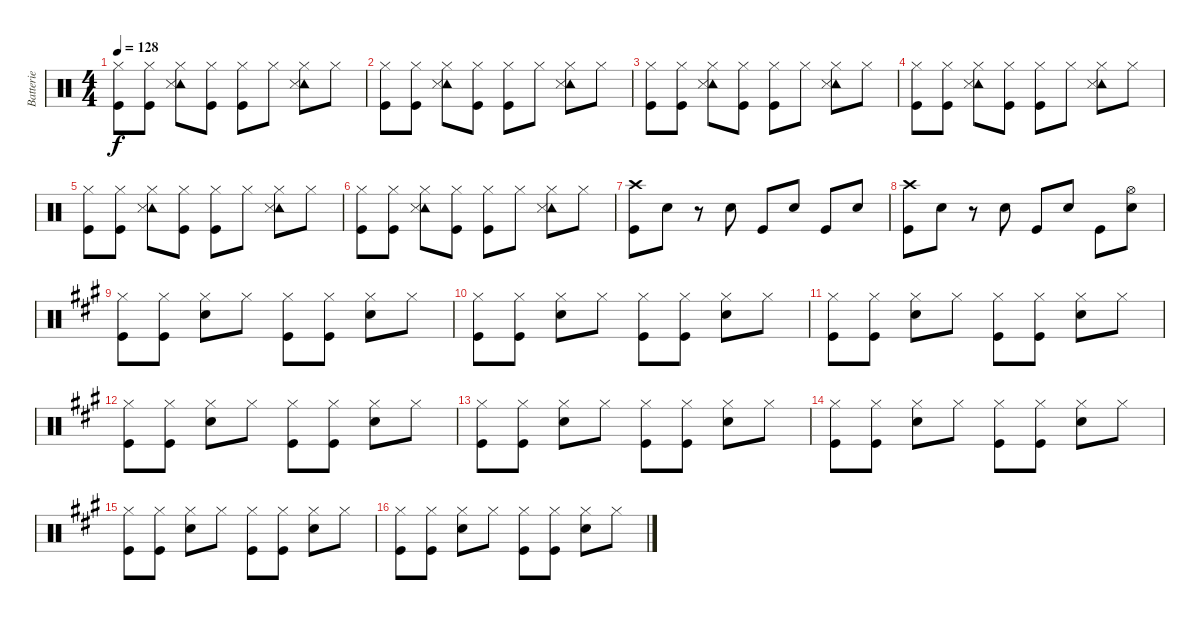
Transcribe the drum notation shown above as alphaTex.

\track ("Batterie" "Batterie") {instrument percussion}
\staff {score}
\articulation defaults
\ts (4 4)
\tempo 128
\clef neutral
\ks c
("Hi-Hat (closed)" "Kick (hit)").8{dy f} ("Hi-Hat (closed)" "Kick (hit)").8 ("Hi-Hat (closed)" "Tambourine (hit)" "Snare (side stick) 3").8 ("Hi-Hat (closed)" "Kick (hit)").8 ("Hi-Hat (closed)" "Kick (hit)").8 "Hi-Hat (closed)".8 ("Hi-Hat (closed)" "Tambourine (hit)" "Snare (side stick) 3").8 "Hi-Hat (closed)".8 |
("Hi-Hat (closed)" "Kick (hit)").8 ("Hi-Hat (closed)" "Kick (hit)").8 ("Hi-Hat (closed)" "Tambourine (hit)" "Snare (side stick) 3").8 ("Hi-Hat (closed)" "Kick (hit)").8 ("Hi-Hat (closed)" "Kick (hit)").8 "Hi-Hat (closed)".8 ("Hi-Hat (closed)" "Tambourine (hit)" "Snare (side stick) 3").8 "Hi-Hat (closed)".8 |
("Hi-Hat (closed)" "Kick (hit)").8 ("Hi-Hat (closed)" "Kick (hit)").8 ("Hi-Hat (closed)" "Tambourine (hit)" "Snare (side stick) 3").8 ("Hi-Hat (closed)" "Kick (hit)").8 ("Hi-Hat (closed)" "Kick (hit)").8 "Hi-Hat (closed)".8 ("Hi-Hat (closed)" "Tambourine (hit)" "Snare (side stick) 3").8 "Hi-Hat (closed)".8 |
("Hi-Hat (closed)" "Kick (hit)").8 ("Hi-Hat (closed)" "Kick (hit)").8 ("Hi-Hat (closed)" "Tambourine (hit)" "Snare (side stick) 3").8 ("Hi-Hat (closed)" "Kick (hit)").8 ("Hi-Hat (closed)" "Kick (hit)").8 "Hi-Hat (closed)".8 ("Hi-Hat (closed)" "Tambourine (hit)" "Snare (side stick) 3").8 "Hi-Hat (closed)".8 |
("Hi-Hat (closed)" "Kick (hit)").8 ("Hi-Hat (closed)" "Kick (hit)").8 ("Hi-Hat (closed)" "Tambourine (hit)" "Snare (side stick) 3").8 ("Hi-Hat (closed)" "Kick (hit)").8 ("Hi-Hat (closed)" "Kick (hit)").8 "Hi-Hat (closed)".8 ("Hi-Hat (closed)" "Tambourine (hit)" "Snare (side stick) 3").8 "Hi-Hat (closed)".8 |
("Hi-Hat (closed)" "Kick (hit)").8 ("Hi-Hat (closed)" "Kick (hit)").8 ("Hi-Hat (closed)" "Tambourine (hit)" "Snare (side stick) 3").8 ("Hi-Hat (closed)" "Kick (hit)").8 ("Hi-Hat (closed)" "Kick (hit)").8 "Hi-Hat (closed)".8 ("Hi-Hat (closed)" "Tambourine (hit)" "Snare (side stick) 3").8 "Hi-Hat (closed)".8 |
("Crash high (hit)" "Kick (hit)").8 "Snare (hit) 2".8 r.8 "Snare (hit) 2".8 "Kick (hit)".8 "Snare (hit) 2".8 "Kick (hit)".8 "Snare (hit) 2".8 |
("Crash high (hit)" "Kick (hit)").8 "Snare (hit) 2".8 r.8 "Snare (hit) 2".8 "Kick (hit)".8 "Snare (hit) 2".8 "Kick (hit)".8 ("Hi-Hat (open)" "Snare (hit) 2").8 |
\ks a
("Hi-Hat (closed)" "Kick (hit)").8 ("Hi-Hat (closed)" "Kick (hit)").8 ("Hi-Hat (closed)" "Snare (hit) 2").8 "Hi-Hat (closed)".8 ("Hi-Hat (closed)" "Kick (hit)").8 ("Hi-Hat (closed)" "Kick (hit)").8 ("Hi-Hat (closed)" "Snare (hit) 2").8 "Hi-Hat (closed)".8 |
("Hi-Hat (closed)" "Kick (hit)").8 ("Hi-Hat (closed)" "Kick (hit)").8 ("Hi-Hat (closed)" "Snare (hit) 2").8 "Hi-Hat (closed)".8 ("Hi-Hat (closed)" "Kick (hit)").8 ("Hi-Hat (closed)" "Kick (hit)").8 ("Hi-Hat (closed)" "Snare (hit) 2").8 "Hi-Hat (closed)".8 |
("Hi-Hat (closed)" "Kick (hit)").8 ("Hi-Hat (closed)" "Kick (hit)").8 ("Hi-Hat (closed)" "Snare (hit) 2").8 "Hi-Hat (closed)".8 ("Hi-Hat (closed)" "Kick (hit)").8 ("Hi-Hat (closed)" "Kick (hit)").8 ("Hi-Hat (closed)" "Snare (hit) 2").8 "Hi-Hat (closed)".8 |
("Hi-Hat (closed)" "Kick (hit)").8 ("Hi-Hat (closed)" "Kick (hit)").8 ("Hi-Hat (closed)" "Snare (hit) 2").8 "Hi-Hat (closed)".8 ("Hi-Hat (closed)" "Kick (hit)").8 ("Hi-Hat (closed)" "Kick (hit)").8 ("Hi-Hat (closed)" "Snare (hit) 2").8 "Hi-Hat (closed)".8 |
("Hi-Hat (closed)" "Kick (hit)").8 ("Hi-Hat (closed)" "Kick (hit)").8 ("Hi-Hat (closed)" "Snare (hit) 2").8 "Hi-Hat (closed)".8 ("Hi-Hat (closed)" "Kick (hit)").8 ("Hi-Hat (closed)" "Kick (hit)").8 ("Hi-Hat (closed)" "Snare (hit) 2").8 "Hi-Hat (closed)".8 |
("Hi-Hat (closed)" "Kick (hit)").8 ("Hi-Hat (closed)" "Kick (hit)").8 ("Hi-Hat (closed)" "Snare (hit) 2").8 "Hi-Hat (closed)".8 ("Hi-Hat (closed)" "Kick (hit)").8 ("Hi-Hat (closed)" "Kick (hit)").8 ("Hi-Hat (closed)" "Snare (hit) 2").8 "Hi-Hat (closed)".8 |
("Hi-Hat (closed)" "Kick (hit)").8 ("Hi-Hat (closed)" "Kick (hit)").8 ("Hi-Hat (closed)" "Snare (hit) 2").8 "Hi-Hat (closed)".8 ("Hi-Hat (closed)" "Kick (hit)").8 ("Hi-Hat (closed)" "Kick (hit)").8 ("Hi-Hat (closed)" "Snare (hit) 2").8 "Hi-Hat (closed)".8 |
("Hi-Hat (closed)" "Kick (hit)").8 ("Hi-Hat (closed)" "Kick (hit)").8 ("Hi-Hat (closed)" "Snare (hit) 2").8 "Hi-Hat (closed)".8 ("Hi-Hat (closed)" "Kick (hit)").8 ("Hi-Hat (closed)" "Kick (hit)").8 ("Hi-Hat (closed)" "Snare (hit) 2").8 "Hi-Hat (closed)".8
